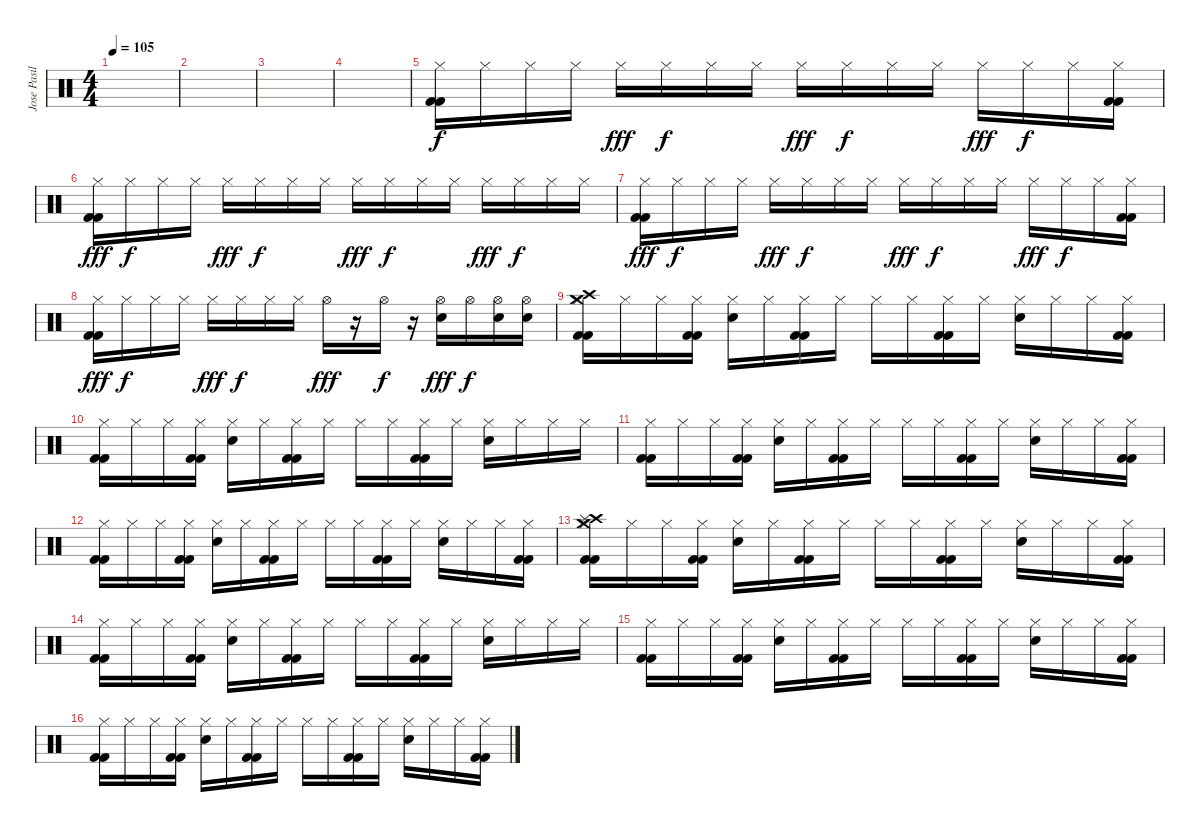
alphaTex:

\track ("Jose Pasillas" "Jose Pasil") {instrument percussion}
\staff {score}
\articulation defaults
\ts (4 4)
\tempo 105
\clef neutral
\ks c
|
|
|
|
("Kick (hit) 2" "Hi-Hat (closed)" "Kick (hit) 2").16 "Hi-Hat (closed)".16{dy f} "Hi-Hat (closed)".16 "Hi-Hat (closed)".16 "Hi-Hat (closed)".16{dy fff} "Hi-Hat (closed)".16{dy f} "Hi-Hat (closed)".16 "Hi-Hat (closed)".16 "Hi-Hat (closed)".16{dy fff} "Hi-Hat (closed)".16{dy f} "Hi-Hat (closed)".16 "Hi-Hat (closed)".16 "Hi-Hat (closed)".16{dy fff} "Hi-Hat (closed)".16{dy f} "Hi-Hat (closed)".16 ("Kick (hit) 2" "Hi-Hat (closed)" "Kick (hit) 2").16 |
("Kick (hit) 2" "Hi-Hat (closed)" "Kick (hit) 2").16{dy fff} "Hi-Hat (closed)".16{dy f} "Hi-Hat (closed)".16 "Hi-Hat (closed)".16 "Hi-Hat (closed)".16{dy fff} "Hi-Hat (closed)".16{dy f} "Hi-Hat (closed)".16 "Hi-Hat (closed)".16 "Hi-Hat (closed)".16{dy fff} "Hi-Hat (closed)".16{dy f} "Hi-Hat (closed)".16 "Hi-Hat (closed)".16 "Hi-Hat (closed)".16{dy fff} "Hi-Hat (closed)".16{dy f} "Hi-Hat (closed)".16 "Hi-Hat (closed)".16 |
("Kick (hit) 2" "Hi-Hat (closed)" "Kick (hit) 2").16{dy fff} "Hi-Hat (closed)".16{dy f} "Hi-Hat (closed)".16 "Hi-Hat (closed)".16 "Hi-Hat (closed)".16{dy fff} "Hi-Hat (closed)".16{dy f} "Hi-Hat (closed)".16 "Hi-Hat (closed)".16 "Hi-Hat (closed)".16{dy fff} "Hi-Hat (closed)".16{dy f} "Hi-Hat (closed)".16 "Hi-Hat (closed)".16 "Hi-Hat (closed)".16{dy fff} "Hi-Hat (closed)".16{dy f} "Hi-Hat (closed)".16 ("Kick (hit) 2" "Hi-Hat (closed)" "Kick (hit) 2").16 |
("Kick (hit) 2" "Hi-Hat (closed)" "Kick (hit) 2").16{dy fff} "Hi-Hat (closed)".16{dy f} "Hi-Hat (closed)".16 "Hi-Hat (closed)".16 "Hi-Hat (closed)".16{dy fff} "Hi-Hat (closed)".16{dy f} "Hi-Hat (closed)".16 "Hi-Hat (closed)".16 "Hi-Hat (open)".16{dy fff} r.16 "Hi-Hat (open)".16{dy f} r.16 ("Electric Snare (hit)" "Hi-Hat (open)").16{dy fff} "Hi-Hat (open)".16{dy f} ("Electric Snare (hit)" "Hi-Hat (open)").16 ("Electric Snare (hit)" "Hi-Hat (open)").16 |
("Hi-Hat (closed)" "Crash high (hit)" "Crash medium (hit)" "Kick (hit) 2" "Kick (hit) 2").16 "Hi-Hat (closed)".16 "Hi-Hat (closed)".16 ("Hi-Hat (closed)" "Kick (hit) 2" "Kick (hit) 2").16 ("Hi-Hat (closed)" "Electric Snare (hit)").16 "Hi-Hat (closed)".16 ("Hi-Hat (closed)" "Kick (hit) 2" "Kick (hit) 2").16 "Hi-Hat (closed)".16 "Hi-Hat (closed)".16 "Hi-Hat (closed)".16 ("Hi-Hat (closed)" "Kick (hit) 2" "Kick (hit) 2").16 "Hi-Hat (closed)".16 ("Hi-Hat (closed)" "Electric Snare (hit)").16 "Hi-Hat (closed)".16 "Hi-Hat (closed)".16 ("Hi-Hat (closed)" "Kick (hit) 2" "Kick (hit) 2").16 |
("Hi-Hat (closed)" "Kick (hit) 2" "Kick (hit) 2").16 "Hi-Hat (closed)".16 "Hi-Hat (closed)".16 ("Hi-Hat (closed)" "Kick (hit) 2" "Kick (hit) 2").16 ("Hi-Hat (closed)" "Electric Snare (hit)").16 "Hi-Hat (closed)".16 ("Hi-Hat (closed)" "Kick (hit) 2" "Kick (hit) 2").16 "Hi-Hat (closed)".16 "Hi-Hat (closed)".16 "Hi-Hat (closed)".16 ("Hi-Hat (closed)" "Kick (hit) 2" "Kick (hit) 2").16 "Hi-Hat (closed)".16 ("Hi-Hat (closed)" "Electric Snare (hit)").16 "Hi-Hat (closed)".16 "Hi-Hat (closed)".16 "Hi-Hat (closed)".16 |
("Hi-Hat (closed)" "Kick (hit) 2" "Kick (hit) 2").16 "Hi-Hat (closed)".16 "Hi-Hat (closed)".16 ("Hi-Hat (closed)" "Kick (hit) 2" "Kick (hit) 2").16 ("Hi-Hat (closed)" "Electric Snare (hit)").16 "Hi-Hat (closed)".16 ("Hi-Hat (closed)" "Kick (hit) 2" "Kick (hit) 2").16 "Hi-Hat (closed)".16 "Hi-Hat (closed)".16 "Hi-Hat (closed)".16 ("Hi-Hat (closed)" "Kick (hit) 2" "Kick (hit) 2").16 "Hi-Hat (closed)".16 ("Hi-Hat (closed)" "Electric Snare (hit)").16 "Hi-Hat (closed)".16 "Hi-Hat (closed)".16 ("Hi-Hat (closed)" "Kick (hit) 2" "Kick (hit) 2").16 |
("Hi-Hat (closed)" "Kick (hit) 2" "Kick (hit) 2").16 "Hi-Hat (closed)".16 "Hi-Hat (closed)".16 ("Hi-Hat (closed)" "Kick (hit) 2" "Kick (hit) 2").16 ("Hi-Hat (closed)" "Electric Snare (hit)").16 "Hi-Hat (closed)".16 ("Hi-Hat (closed)" "Kick (hit) 2" "Kick (hit) 2").16 "Hi-Hat (closed)".16 "Hi-Hat (closed)".16 "Hi-Hat (closed)".16 ("Hi-Hat (closed)" "Kick (hit) 2" "Kick (hit) 2").16 "Hi-Hat (closed)".16 ("Hi-Hat (closed)" "Electric Snare (hit)").16 "Hi-Hat (closed)".16 "Hi-Hat (closed)".16 ("Hi-Hat (closed)" "Kick (hit) 2" "Kick (hit) 2").16 |
("Hi-Hat (closed)" "Crash medium (hit)" "Crash high (hit)" "Splash (hit)" "Kick (hit) 2" "Kick (hit) 2").16 "Hi-Hat (closed)".16 "Hi-Hat (closed)".16 ("Hi-Hat (closed)" "Kick (hit) 2" "Kick (hit) 2").16 ("Hi-Hat (closed)" "Electric Snare (hit)").16 "Hi-Hat (closed)".16 ("Hi-Hat (closed)" "Kick (hit) 2" "Kick (hit) 2").16 "Hi-Hat (closed)".16 "Hi-Hat (closed)".16 "Hi-Hat (closed)".16 ("Hi-Hat (closed)" "Kick (hit) 2" "Kick (hit) 2").16 "Hi-Hat (closed)".16 ("Hi-Hat (closed)" "Electric Snare (hit)").16 "Hi-Hat (closed)".16 "Hi-Hat (closed)".16 ("Hi-Hat (closed)" "Kick (hit) 2" "Kick (hit) 2").16 |
("Hi-Hat (closed)" "Kick (hit) 2" "Kick (hit) 2").16 "Hi-Hat (closed)".16 "Hi-Hat (closed)".16 ("Hi-Hat (closed)" "Kick (hit) 2" "Kick (hit) 2").16 ("Hi-Hat (closed)" "Electric Snare (hit)").16 "Hi-Hat (closed)".16 ("Hi-Hat (closed)" "Kick (hit) 2" "Kick (hit) 2").16 "Hi-Hat (closed)".16 "Hi-Hat (closed)".16 "Hi-Hat (closed)".16 ("Hi-Hat (closed)" "Kick (hit) 2" "Kick (hit) 2").16 "Hi-Hat (closed)".16 ("Hi-Hat (closed)" "Electric Snare (hit)").16 "Hi-Hat (closed)".16 "Hi-Hat (closed)".16 "Hi-Hat (closed)".16 |
("Hi-Hat (closed)" "Kick (hit) 2" "Kick (hit) 2").16 "Hi-Hat (closed)".16 "Hi-Hat (closed)".16 ("Hi-Hat (closed)" "Kick (hit) 2" "Kick (hit) 2").16 ("Hi-Hat (closed)" "Electric Snare (hit)").16 "Hi-Hat (closed)".16 ("Hi-Hat (closed)" "Kick (hit) 2" "Kick (hit) 2").16 "Hi-Hat (closed)".16 "Hi-Hat (closed)".16 "Hi-Hat (closed)".16 ("Hi-Hat (closed)" "Kick (hit) 2" "Kick (hit) 2").16 "Hi-Hat (closed)".16 ("Hi-Hat (closed)" "Electric Snare (hit)").16 "Hi-Hat (closed)".16 "Hi-Hat (closed)".16 ("Hi-Hat (closed)" "Kick (hit) 2" "Kick (hit) 2").16 |
("Hi-Hat (closed)" "Kick (hit) 2" "Kick (hit) 2").16 "Hi-Hat (closed)".16 "Hi-Hat (closed)".16 ("Hi-Hat (closed)" "Kick (hit) 2" "Kick (hit) 2").16 ("Hi-Hat (closed)" "Electric Snare (hit)").16 "Hi-Hat (closed)".16 ("Hi-Hat (closed)" "Kick (hit) 2" "Kick (hit) 2").16 "Hi-Hat (closed)".16 "Hi-Hat (closed)".16 "Hi-Hat (closed)".16 ("Hi-Hat (closed)" "Kick (hit) 2" "Kick (hit) 2").16 "Hi-Hat (closed)".16 ("Hi-Hat (closed)" "Electric Snare (hit)").16 "Hi-Hat (closed)".16 "Hi-Hat (closed)".16 ("Hi-Hat (closed)" "Kick (hit) 2" "Kick (hit) 2").16
